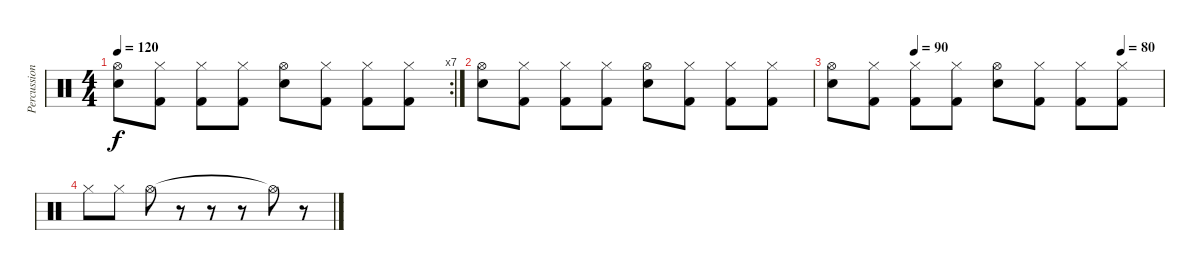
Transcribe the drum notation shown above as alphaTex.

\track ("Percussion" "Percussion") {instrument percussion}
\staff {score}
\articulation defaults
\rc 7
\ts (4 4)
\tempo 120
\clef neutral
\ks c
("Hi-Hat (open)" "Electric Snare (hit)").8{dy f} ("Hi-Hat (closed)" "Kick (hit) 2").8 ("Hi-Hat (closed)" "Kick (hit) 2").8 ("Hi-Hat (closed)" "Kick (hit) 2").8 ("Hi-Hat (open)" "Electric Snare (hit)").8 ("Hi-Hat (closed)" "Kick (hit) 2").8 ("Hi-Hat (closed)" "Kick (hit) 2").8 ("Hi-Hat (closed)" "Kick (hit) 2").8 |
("Hi-Hat (open)" "Electric Snare (hit)").8 ("Hi-Hat (closed)" "Kick (hit) 2").8 ("Hi-Hat (closed)" "Kick (hit) 2").8 ("Hi-Hat (closed)" "Kick (hit) 2").8 ("Hi-Hat (open)" "Electric Snare (hit)").8 ("Hi-Hat (closed)" "Kick (hit) 2").8 ("Hi-Hat (closed)" "Kick (hit) 2").8 ("Hi-Hat (closed)" "Kick (hit) 2").8 |
\tempo (90 0.25)
\tempo (80 0.875)
("Hi-Hat (open)" "Electric Snare (hit)").8 ("Hi-Hat (closed)" "Kick (hit) 2").8 ("Hi-Hat (closed)" "Kick (hit) 2").8 ("Hi-Hat (closed)" "Kick (hit) 2").8 ("Hi-Hat (open)" "Electric Snare (hit)").8 ("Hi-Hat (closed)" "Kick (hit) 2").8 ("Hi-Hat (closed)" "Kick (hit) 2").8 ("Hi-Hat (closed)" "Kick (hit) 2").8 |
"Hi-Hat (closed)".8 "Hi-Hat (closed)".8 "Hi-Hat (open)".8 r.8 r.8 r.8 "Hi-Hat (open)"{t}.8 r.8
